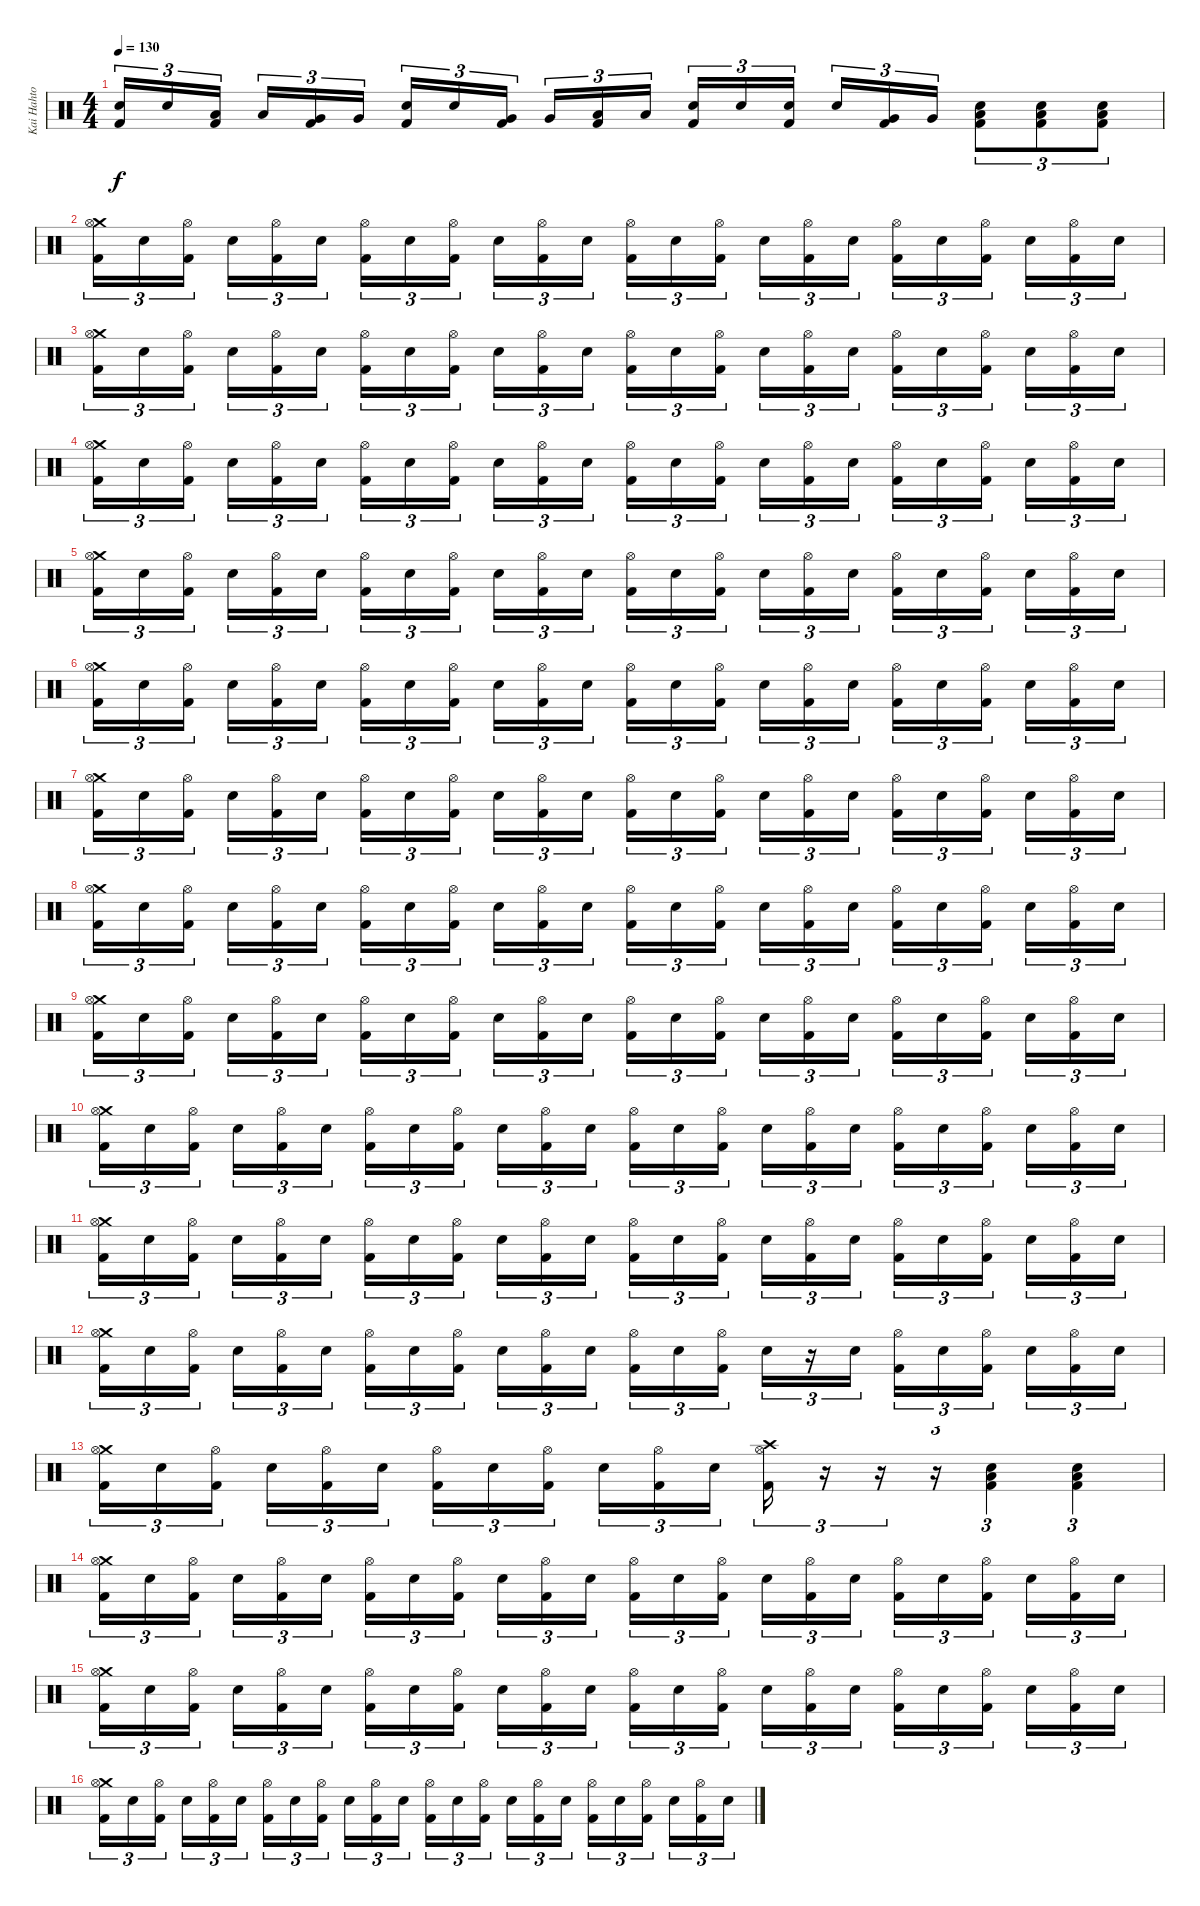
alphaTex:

\track ("Kai Hahto" "Kai Hahto") {instrument percussion}
\staff {score}
\articulation defaults
\ts (4 4)
\tempo 130
\clef neutral
\ks c
("Snare (hit) 2" "Kick (hit) 2").16{tu (3 2) dy f} "Snare (hit) 2".16{tu (3 2)} ("Low Tom (hit)" "Kick (hit) 2").16{tu (3 2) beam splitsecondary} "Low Tom (hit)".16{tu (3 2)} ("Very Low Tom (hit)" "Kick (hit) 2").16{tu (3 2)} "Very Low Tom (hit)".16{tu (3 2)} ("Snare (hit) 2" "Kick (hit) 2").16{tu (3 2)} "Snare (hit) 2".16{tu (3 2)} ("Very Low Tom (hit)" "Kick (hit) 2").16{tu (3 2) beam splitsecondary} "Very Low Tom (hit)".16{tu (3 2)} ("Low Floor Tom (hit)" "Kick (hit) 2").16{tu (3 2)} "Low Floor Tom (hit)".16{tu (3 2)} ("Snare (hit) 2" "Kick (hit) 2").16{tu (3 2)} "Snare (hit) 2".16{tu (3 2)} ("Snare (hit) 2" "Kick (hit) 2").16{tu (3 2) beam splitsecondary} "Snare (hit) 2".16{tu (3 2)} ("Very Low Tom (hit)" "Kick (hit) 2").16{tu (3 2)} "Very Low Tom (hit)".16{tu (3 2)} ("Snare (hit) 2" "Low Floor Tom (hit)" "Kick (hit) 2").8{tu (3 2)} ("Snare (hit) 2" "Low Floor Tom (hit)" "Kick (hit) 2").8{tu (3 2)} ("Snare (hit) 2" "Low Floor Tom (hit)" "Kick (hit) 2").8{tu (3 2)} |
("Crash medium (hit)" "Hi-Hat (open)" "Kick (hit) 2").16{tu (3 2)} "Snare (hit) 2".16{tu (3 2)} ("Hi-Hat (open)" "Kick (hit) 2").16{tu (3 2) beam splitsecondary} "Snare (hit) 2".16{tu (3 2)} ("Hi-Hat (open)" "Kick (hit) 2").16{tu (3 2)} "Snare (hit) 2".16{tu (3 2)} ("Hi-Hat (open)" "Kick (hit) 2").16{tu (3 2)} "Snare (hit) 2".16{tu (3 2)} ("Hi-Hat (open)" "Kick (hit) 2").16{tu (3 2) beam splitsecondary} "Snare (hit) 2".16{tu (3 2)} ("Hi-Hat (open)" "Kick (hit) 2").16{tu (3 2)} "Snare (hit) 2".16{tu (3 2)} ("Hi-Hat (open)" "Kick (hit) 2").16{tu (3 2)} "Snare (hit) 2".16{tu (3 2)} ("Hi-Hat (open)" "Kick (hit) 2").16{tu (3 2) beam splitsecondary} "Snare (hit) 2".16{tu (3 2)} ("Hi-Hat (open)" "Kick (hit) 2").16{tu (3 2)} "Snare (hit) 2".16{tu (3 2)} ("Hi-Hat (open)" "Kick (hit) 2").16{tu (3 2)} "Snare (hit) 2".16{tu (3 2)} ("Hi-Hat (open)" "Kick (hit) 2").16{tu (3 2) beam splitsecondary} "Snare (hit) 2".16{tu (3 2)} ("Hi-Hat (open)" "Kick (hit) 2").16{tu (3 2)} "Snare (hit) 2".16{tu (3 2)} |
("Crash medium (hit)" "Hi-Hat (open)" "Kick (hit) 2").16{tu (3 2)} "Snare (hit) 2".16{tu (3 2)} ("Hi-Hat (open)" "Kick (hit) 2").16{tu (3 2) beam splitsecondary} "Snare (hit) 2".16{tu (3 2)} ("Hi-Hat (open)" "Kick (hit) 2").16{tu (3 2)} "Snare (hit) 2".16{tu (3 2)} ("Hi-Hat (open)" "Kick (hit) 2").16{tu (3 2)} "Snare (hit) 2".16{tu (3 2)} ("Hi-Hat (open)" "Kick (hit) 2").16{tu (3 2) beam splitsecondary} "Snare (hit) 2".16{tu (3 2)} ("Hi-Hat (open)" "Kick (hit) 2").16{tu (3 2)} "Snare (hit) 2".16{tu (3 2)} ("Hi-Hat (open)" "Kick (hit) 2").16{tu (3 2)} "Snare (hit) 2".16{tu (3 2)} ("Hi-Hat (open)" "Kick (hit) 2").16{tu (3 2) beam splitsecondary} "Snare (hit) 2".16{tu (3 2)} ("Hi-Hat (open)" "Kick (hit) 2").16{tu (3 2)} "Snare (hit) 2".16{tu (3 2)} ("Hi-Hat (open)" "Kick (hit) 2").16{tu (3 2)} "Snare (hit) 2".16{tu (3 2)} ("Hi-Hat (open)" "Kick (hit) 2").16{tu (3 2) beam splitsecondary} "Snare (hit) 2".16{tu (3 2)} ("Hi-Hat (open)" "Kick (hit) 2").16{tu (3 2)} "Snare (hit) 2".16{tu (3 2)} |
("Crash medium (hit)" "Hi-Hat (open)" "Kick (hit) 2").16{tu (3 2)} "Snare (hit) 2".16{tu (3 2)} ("Hi-Hat (open)" "Kick (hit) 2").16{tu (3 2) beam splitsecondary} "Snare (hit) 2".16{tu (3 2)} ("Hi-Hat (open)" "Kick (hit) 2").16{tu (3 2)} "Snare (hit) 2".16{tu (3 2)} ("Hi-Hat (open)" "Kick (hit) 2").16{tu (3 2)} "Snare (hit) 2".16{tu (3 2)} ("Hi-Hat (open)" "Kick (hit) 2").16{tu (3 2) beam splitsecondary} "Snare (hit) 2".16{tu (3 2)} ("Hi-Hat (open)" "Kick (hit) 2").16{tu (3 2)} "Snare (hit) 2".16{tu (3 2)} ("Hi-Hat (open)" "Kick (hit) 2").16{tu (3 2)} "Snare (hit) 2".16{tu (3 2)} ("Hi-Hat (open)" "Kick (hit) 2").16{tu (3 2) beam splitsecondary} "Snare (hit) 2".16{tu (3 2)} ("Hi-Hat (open)" "Kick (hit) 2").16{tu (3 2)} "Snare (hit) 2".16{tu (3 2)} ("Hi-Hat (open)" "Kick (hit) 2").16{tu (3 2)} "Snare (hit) 2".16{tu (3 2)} ("Hi-Hat (open)" "Kick (hit) 2").16{tu (3 2) beam splitsecondary} "Snare (hit) 2".16{tu (3 2)} ("Hi-Hat (open)" "Kick (hit) 2").16{tu (3 2)} "Snare (hit) 2".16{tu (3 2)} |
("Crash medium (hit)" "Hi-Hat (open)" "Kick (hit) 2").16{tu (3 2)} "Snare (hit) 2".16{tu (3 2)} ("Hi-Hat (open)" "Kick (hit) 2").16{tu (3 2) beam splitsecondary} "Snare (hit) 2".16{tu (3 2)} ("Hi-Hat (open)" "Kick (hit) 2").16{tu (3 2)} "Snare (hit) 2".16{tu (3 2)} ("Hi-Hat (open)" "Kick (hit) 2").16{tu (3 2)} "Snare (hit) 2".16{tu (3 2)} ("Hi-Hat (open)" "Kick (hit) 2").16{tu (3 2) beam splitsecondary} "Snare (hit) 2".16{tu (3 2)} ("Hi-Hat (open)" "Kick (hit) 2").16{tu (3 2)} "Snare (hit) 2".16{tu (3 2)} ("Hi-Hat (open)" "Kick (hit) 2").16{tu (3 2)} "Snare (hit) 2".16{tu (3 2)} ("Hi-Hat (open)" "Kick (hit) 2").16{tu (3 2) beam splitsecondary} "Snare (hit) 2".16{tu (3 2)} ("Hi-Hat (open)" "Kick (hit) 2").16{tu (3 2)} "Snare (hit) 2".16{tu (3 2)} ("Hi-Hat (open)" "Kick (hit) 2").16{tu (3 2)} "Snare (hit) 2".16{tu (3 2)} ("Hi-Hat (open)" "Kick (hit) 2").16{tu (3 2) beam splitsecondary} "Snare (hit) 2".16{tu (3 2)} ("Hi-Hat (open)" "Kick (hit) 2").16{tu (3 2)} "Snare (hit) 2".16{tu (3 2)} |
("Crash medium (hit)" "Hi-Hat (open)" "Kick (hit) 2").16{tu (3 2)} "Snare (hit) 2".16{tu (3 2)} ("Hi-Hat (open)" "Kick (hit) 2").16{tu (3 2) beam splitsecondary} "Snare (hit) 2".16{tu (3 2)} ("Hi-Hat (open)" "Kick (hit) 2").16{tu (3 2)} "Snare (hit) 2".16{tu (3 2)} ("Hi-Hat (open)" "Kick (hit) 2").16{tu (3 2)} "Snare (hit) 2".16{tu (3 2)} ("Hi-Hat (open)" "Kick (hit) 2").16{tu (3 2) beam splitsecondary} "Snare (hit) 2".16{tu (3 2)} ("Hi-Hat (open)" "Kick (hit) 2").16{tu (3 2)} "Snare (hit) 2".16{tu (3 2)} ("Hi-Hat (open)" "Kick (hit) 2").16{tu (3 2)} "Snare (hit) 2".16{tu (3 2)} ("Hi-Hat (open)" "Kick (hit) 2").16{tu (3 2) beam splitsecondary} "Snare (hit) 2".16{tu (3 2)} ("Hi-Hat (open)" "Kick (hit) 2").16{tu (3 2)} "Snare (hit) 2".16{tu (3 2)} ("Hi-Hat (open)" "Kick (hit) 2").16{tu (3 2)} "Snare (hit) 2".16{tu (3 2)} ("Hi-Hat (open)" "Kick (hit) 2").16{tu (3 2) beam splitsecondary} "Snare (hit) 2".16{tu (3 2)} ("Hi-Hat (open)" "Kick (hit) 2").16{tu (3 2)} "Snare (hit) 2".16{tu (3 2)} |
("Crash medium (hit)" "Hi-Hat (open)" "Kick (hit) 2").16{tu (3 2)} "Snare (hit) 2".16{tu (3 2)} ("Hi-Hat (open)" "Kick (hit) 2").16{tu (3 2) beam splitsecondary} "Snare (hit) 2".16{tu (3 2)} ("Hi-Hat (open)" "Kick (hit) 2").16{tu (3 2)} "Snare (hit) 2".16{tu (3 2)} ("Hi-Hat (open)" "Kick (hit) 2").16{tu (3 2)} "Snare (hit) 2".16{tu (3 2)} ("Hi-Hat (open)" "Kick (hit) 2").16{tu (3 2) beam splitsecondary} "Snare (hit) 2".16{tu (3 2)} ("Hi-Hat (open)" "Kick (hit) 2").16{tu (3 2)} "Snare (hit) 2".16{tu (3 2)} ("Hi-Hat (open)" "Kick (hit) 2").16{tu (3 2)} "Snare (hit) 2".16{tu (3 2)} ("Hi-Hat (open)" "Kick (hit) 2").16{tu (3 2) beam splitsecondary} "Snare (hit) 2".16{tu (3 2)} ("Hi-Hat (open)" "Kick (hit) 2").16{tu (3 2)} "Snare (hit) 2".16{tu (3 2)} ("Hi-Hat (open)" "Kick (hit) 2").16{tu (3 2)} "Snare (hit) 2".16{tu (3 2)} ("Hi-Hat (open)" "Kick (hit) 2").16{tu (3 2) beam splitsecondary} "Snare (hit) 2".16{tu (3 2)} ("Hi-Hat (open)" "Kick (hit) 2").16{tu (3 2)} "Snare (hit) 2".16{tu (3 2)} |
("Crash medium (hit)" "Hi-Hat (open)" "Kick (hit) 2").16{tu (3 2)} "Snare (hit) 2".16{tu (3 2)} ("Hi-Hat (open)" "Kick (hit) 2").16{tu (3 2) beam splitsecondary} "Snare (hit) 2".16{tu (3 2)} ("Hi-Hat (open)" "Kick (hit) 2").16{tu (3 2)} "Snare (hit) 2".16{tu (3 2)} ("Hi-Hat (open)" "Kick (hit) 2").16{tu (3 2)} "Snare (hit) 2".16{tu (3 2)} ("Hi-Hat (open)" "Kick (hit) 2").16{tu (3 2) beam splitsecondary} "Snare (hit) 2".16{tu (3 2)} ("Hi-Hat (open)" "Kick (hit) 2").16{tu (3 2)} "Snare (hit) 2".16{tu (3 2)} ("Hi-Hat (open)" "Kick (hit) 2").16{tu (3 2)} "Snare (hit) 2".16{tu (3 2)} ("Hi-Hat (open)" "Kick (hit) 2").16{tu (3 2) beam splitsecondary} "Snare (hit) 2".16{tu (3 2)} ("Hi-Hat (open)" "Kick (hit) 2").16{tu (3 2)} "Snare (hit) 2".16{tu (3 2)} ("Hi-Hat (open)" "Kick (hit) 2").16{tu (3 2)} "Snare (hit) 2".16{tu (3 2)} ("Hi-Hat (open)" "Kick (hit) 2").16{tu (3 2) beam splitsecondary} "Snare (hit) 2".16{tu (3 2)} ("Hi-Hat (open)" "Kick (hit) 2").16{tu (3 2)} "Snare (hit) 2".16{tu (3 2)} |
("Crash medium (hit)" "Hi-Hat (open)" "Kick (hit) 2").16{tu (3 2)} "Snare (hit) 2".16{tu (3 2)} ("Hi-Hat (open)" "Kick (hit) 2").16{tu (3 2) beam splitsecondary} "Snare (hit) 2".16{tu (3 2)} ("Hi-Hat (open)" "Kick (hit) 2").16{tu (3 2)} "Snare (hit) 2".16{tu (3 2)} ("Hi-Hat (open)" "Kick (hit) 2").16{tu (3 2)} "Snare (hit) 2".16{tu (3 2)} ("Hi-Hat (open)" "Kick (hit) 2").16{tu (3 2) beam splitsecondary} "Snare (hit) 2".16{tu (3 2)} ("Hi-Hat (open)" "Kick (hit) 2").16{tu (3 2)} "Snare (hit) 2".16{tu (3 2)} ("Hi-Hat (open)" "Kick (hit) 2").16{tu (3 2)} "Snare (hit) 2".16{tu (3 2)} ("Hi-Hat (open)" "Kick (hit) 2").16{tu (3 2) beam splitsecondary} "Snare (hit) 2".16{tu (3 2)} ("Hi-Hat (open)" "Kick (hit) 2").16{tu (3 2)} "Snare (hit) 2".16{tu (3 2)} ("Hi-Hat (open)" "Kick (hit) 2").16{tu (3 2)} "Snare (hit) 2".16{tu (3 2)} ("Hi-Hat (open)" "Kick (hit) 2").16{tu (3 2) beam splitsecondary} "Snare (hit) 2".16{tu (3 2)} ("Hi-Hat (open)" "Kick (hit) 2").16{tu (3 2)} "Snare (hit) 2".16{tu (3 2)} |
("Crash medium (hit)" "Hi-Hat (open)" "Kick (hit) 2").16{tu (3 2)} "Snare (hit) 2".16{tu (3 2)} ("Hi-Hat (open)" "Kick (hit) 2").16{tu (3 2) beam splitsecondary} "Snare (hit) 2".16{tu (3 2)} ("Hi-Hat (open)" "Kick (hit) 2").16{tu (3 2)} "Snare (hit) 2".16{tu (3 2)} ("Hi-Hat (open)" "Kick (hit) 2").16{tu (3 2)} "Snare (hit) 2".16{tu (3 2)} ("Hi-Hat (open)" "Kick (hit) 2").16{tu (3 2) beam splitsecondary} "Snare (hit) 2".16{tu (3 2)} ("Hi-Hat (open)" "Kick (hit) 2").16{tu (3 2)} "Snare (hit) 2".16{tu (3 2)} ("Hi-Hat (open)" "Kick (hit) 2").16{tu (3 2)} "Snare (hit) 2".16{tu (3 2)} ("Hi-Hat (open)" "Kick (hit) 2").16{tu (3 2) beam splitsecondary} "Snare (hit) 2".16{tu (3 2)} ("Hi-Hat (open)" "Kick (hit) 2").16{tu (3 2)} "Snare (hit) 2".16{tu (3 2)} ("Hi-Hat (open)" "Kick (hit) 2").16{tu (3 2)} "Snare (hit) 2".16{tu (3 2)} ("Hi-Hat (open)" "Kick (hit) 2").16{tu (3 2) beam splitsecondary} "Snare (hit) 2".16{tu (3 2)} ("Hi-Hat (open)" "Kick (hit) 2").16{tu (3 2)} "Snare (hit) 2".16{tu (3 2)} |
("Crash medium (hit)" "Hi-Hat (open)" "Kick (hit) 2").16{tu (3 2)} "Snare (hit) 2".16{tu (3 2)} ("Hi-Hat (open)" "Kick (hit) 2").16{tu (3 2) beam splitsecondary} "Snare (hit) 2".16{tu (3 2)} ("Hi-Hat (open)" "Kick (hit) 2").16{tu (3 2)} "Snare (hit) 2".16{tu (3 2)} ("Hi-Hat (open)" "Kick (hit) 2").16{tu (3 2)} "Snare (hit) 2".16{tu (3 2)} ("Hi-Hat (open)" "Kick (hit) 2").16{tu (3 2) beam splitsecondary} "Snare (hit) 2".16{tu (3 2)} ("Hi-Hat (open)" "Kick (hit) 2").16{tu (3 2)} "Snare (hit) 2".16{tu (3 2)} ("Hi-Hat (open)" "Kick (hit) 2").16{tu (3 2)} "Snare (hit) 2".16{tu (3 2)} ("Hi-Hat (open)" "Kick (hit) 2").16{tu (3 2) beam splitsecondary} "Snare (hit) 2".16{tu (3 2)} ("Hi-Hat (open)" "Kick (hit) 2").16{tu (3 2)} "Snare (hit) 2".16{tu (3 2)} ("Hi-Hat (open)" "Kick (hit) 2").16{tu (3 2)} "Snare (hit) 2".16{tu (3 2)} ("Hi-Hat (open)" "Kick (hit) 2").16{tu (3 2) beam splitsecondary} "Snare (hit) 2".16{tu (3 2)} ("Hi-Hat (open)" "Kick (hit) 2").16{tu (3 2)} "Snare (hit) 2".16{tu (3 2)} |
("Crash medium (hit)" "Hi-Hat (open)" "Kick (hit) 2").16{tu (3 2)} "Snare (hit) 2".16{tu (3 2)} ("Hi-Hat (open)" "Kick (hit) 2").16{tu (3 2) beam splitsecondary} "Snare (hit) 2".16{tu (3 2)} ("Hi-Hat (open)" "Kick (hit) 2").16{tu (3 2)} "Snare (hit) 2".16{tu (3 2)} ("Hi-Hat (open)" "Kick (hit) 2").16{tu (3 2)} "Snare (hit) 2".16{tu (3 2)} ("Hi-Hat (open)" "Kick (hit) 2").16{tu (3 2) beam splitsecondary} "Snare (hit) 2".16{tu (3 2)} ("Hi-Hat (open)" "Kick (hit) 2").16{tu (3 2)} "Snare (hit) 2".16{tu (3 2)} ("Hi-Hat (open)" "Kick (hit) 2").16{tu (3 2)} "Snare (hit) 2".16{tu (3 2)} ("Hi-Hat (open)" "Kick (hit) 2").16{tu (3 2) beam splitsecondary} "Snare (hit) 2".16{tu (3 2)} r.16{tu (3 2)} "Snare (hit) 2".16{tu (3 2)} ("Hi-Hat (open)" "Kick (hit) 2").16{tu (3 2)} "Snare (hit) 2".16{tu (3 2)} ("Hi-Hat (open)" "Kick (hit) 2").16{tu (3 2) beam splitsecondary} "Snare (hit) 2".16{tu (3 2)} ("Hi-Hat (open)" "Kick (hit) 2").16{tu (3 2)} "Snare (hit) 2".16{tu (3 2)} |
("Crash medium (hit)" "Hi-Hat (open)" "Kick (hit) 2").16{tu (3 2)} "Snare (hit) 2".16{tu (3 2)} ("Hi-Hat (open)" "Kick (hit) 2").16{tu (3 2) beam splitsecondary} "Snare (hit) 2".16{tu (3 2)} ("Hi-Hat (open)" "Kick (hit) 2").16{tu (3 2)} "Snare (hit) 2".16{tu (3 2)} ("Hi-Hat (open)" "Kick (hit) 2").16{tu (3 2)} "Snare (hit) 2".16{tu (3 2)} ("Hi-Hat (open)" "Kick (hit) 2").16{tu (3 2) beam splitsecondary} "Snare (hit) 2".16{tu (3 2)} ("Hi-Hat (open)" "Kick (hit) 2").16{tu (3 2)} "Snare (hit) 2".16{tu (3 2)} ("Crash high (hit)" "Hi-Hat (open)" "Kick (hit) 2").16{tu (3 2)} r.16{tu (3 2)} r.16{tu (3 2)} r.16{tu (3 2)} ("Snare (hit) 2" "Low Floor Tom (hit)" "Kick (hit) 2").4{tu (3 2)} ("Snare (hit) 2" "Low Floor Tom (hit)" "Kick (hit) 2").4{tu (3 2)} |
("Crash medium (hit)" "Hi-Hat (open)" "Kick (hit) 2").16{tu (3 2)} "Snare (hit) 2".16{tu (3 2)} ("Hi-Hat (open)" "Kick (hit) 2").16{tu (3 2) beam splitsecondary} "Snare (hit) 2".16{tu (3 2)} ("Hi-Hat (open)" "Kick (hit) 2").16{tu (3 2)} "Snare (hit) 2".16{tu (3 2)} ("Hi-Hat (open)" "Kick (hit) 2").16{tu (3 2)} "Snare (hit) 2".16{tu (3 2)} ("Hi-Hat (open)" "Kick (hit) 2").16{tu (3 2) beam splitsecondary} "Snare (hit) 2".16{tu (3 2)} ("Hi-Hat (open)" "Kick (hit) 2").16{tu (3 2)} "Snare (hit) 2".16{tu (3 2)} ("Hi-Hat (open)" "Kick (hit) 2").16{tu (3 2)} "Snare (hit) 2".16{tu (3 2)} ("Hi-Hat (open)" "Kick (hit) 2").16{tu (3 2) beam splitsecondary} "Snare (hit) 2".16{tu (3 2)} ("Hi-Hat (open)" "Kick (hit) 2").16{tu (3 2)} "Snare (hit) 2".16{tu (3 2)} ("Hi-Hat (open)" "Kick (hit) 2").16{tu (3 2)} "Snare (hit) 2".16{tu (3 2)} ("Hi-Hat (open)" "Kick (hit) 2").16{tu (3 2) beam splitsecondary} "Snare (hit) 2".16{tu (3 2)} ("Hi-Hat (open)" "Kick (hit) 2").16{tu (3 2)} "Snare (hit) 2".16{tu (3 2)} |
("Crash medium (hit)" "Hi-Hat (open)" "Kick (hit) 2").16{tu (3 2)} "Snare (hit) 2".16{tu (3 2)} ("Hi-Hat (open)" "Kick (hit) 2").16{tu (3 2) beam splitsecondary} "Snare (hit) 2".16{tu (3 2)} ("Hi-Hat (open)" "Kick (hit) 2").16{tu (3 2)} "Snare (hit) 2".16{tu (3 2)} ("Hi-Hat (open)" "Kick (hit) 2").16{tu (3 2)} "Snare (hit) 2".16{tu (3 2)} ("Hi-Hat (open)" "Kick (hit) 2").16{tu (3 2) beam splitsecondary} "Snare (hit) 2".16{tu (3 2)} ("Hi-Hat (open)" "Kick (hit) 2").16{tu (3 2)} "Snare (hit) 2".16{tu (3 2)} ("Hi-Hat (open)" "Kick (hit) 2").16{tu (3 2)} "Snare (hit) 2".16{tu (3 2)} ("Hi-Hat (open)" "Kick (hit) 2").16{tu (3 2) beam splitsecondary} "Snare (hit) 2".16{tu (3 2)} ("Hi-Hat (open)" "Kick (hit) 2").16{tu (3 2)} "Snare (hit) 2".16{tu (3 2)} ("Hi-Hat (open)" "Kick (hit) 2").16{tu (3 2)} "Snare (hit) 2".16{tu (3 2)} ("Hi-Hat (open)" "Kick (hit) 2").16{tu (3 2) beam splitsecondary} "Snare (hit) 2".16{tu (3 2)} ("Hi-Hat (open)" "Kick (hit) 2").16{tu (3 2)} "Snare (hit) 2".16{tu (3 2)} |
("Crash medium (hit)" "Hi-Hat (open)" "Kick (hit) 2").16{tu (3 2)} "Snare (hit) 2".16{tu (3 2)} ("Hi-Hat (open)" "Kick (hit) 2").16{tu (3 2) beam splitsecondary} "Snare (hit) 2".16{tu (3 2)} ("Hi-Hat (open)" "Kick (hit) 2").16{tu (3 2)} "Snare (hit) 2".16{tu (3 2)} ("Hi-Hat (open)" "Kick (hit) 2").16{tu (3 2)} "Snare (hit) 2".16{tu (3 2)} ("Hi-Hat (open)" "Kick (hit) 2").16{tu (3 2) beam splitsecondary} "Snare (hit) 2".16{tu (3 2)} ("Hi-Hat (open)" "Kick (hit) 2").16{tu (3 2)} "Snare (hit) 2".16{tu (3 2)} ("Hi-Hat (open)" "Kick (hit) 2").16{tu (3 2)} "Snare (hit) 2".16{tu (3 2)} ("Hi-Hat (open)" "Kick (hit) 2").16{tu (3 2) beam splitsecondary} "Snare (hit) 2".16{tu (3 2)} ("Hi-Hat (open)" "Kick (hit) 2").16{tu (3 2)} "Snare (hit) 2".16{tu (3 2)} ("Hi-Hat (open)" "Kick (hit) 2").16{tu (3 2)} "Snare (hit) 2".16{tu (3 2)} ("Hi-Hat (open)" "Kick (hit) 2").16{tu (3 2) beam splitsecondary} "Snare (hit) 2".16{tu (3 2)} ("Hi-Hat (open)" "Kick (hit) 2").16{tu (3 2)} "Snare (hit) 2".16{tu (3 2)}
